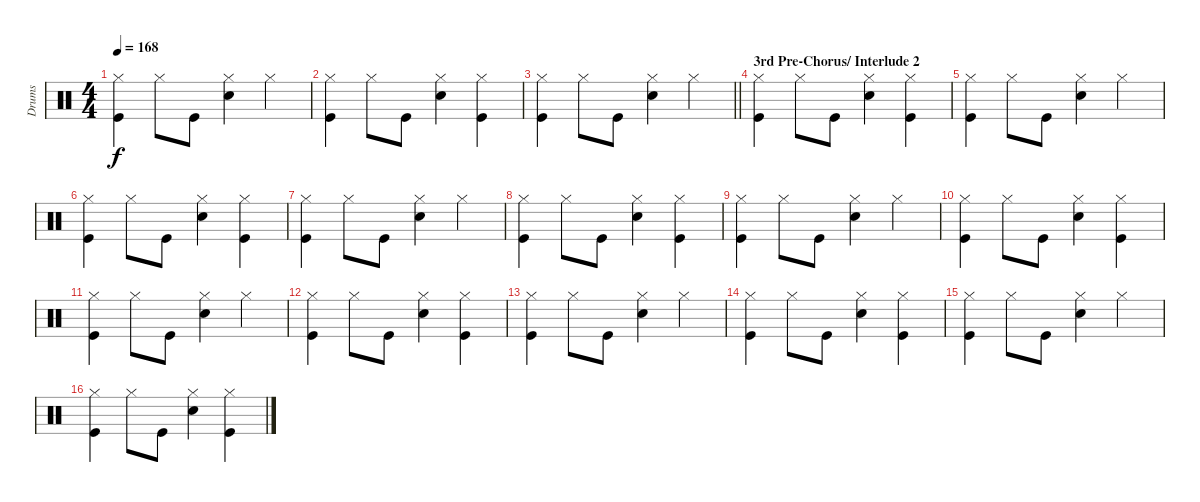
\track ("Drums" "Drums") {instrument percussion}
\staff {score}
\articulation defaults
\ts (4 4)
\tempo 168
\clef neutral
\ks c
("Hi-Hat (closed)" "Kick (hit)").4{dy f} "Hi-Hat (closed)".8 "Kick (hit)".8 ("Hi-Hat (closed)" "Electric Snare (hit)").4 "Hi-Hat (closed)".4 |
("Hi-Hat (closed)" "Kick (hit)").4 "Hi-Hat (closed)".8 "Kick (hit)".8 ("Hi-Hat (closed)" "Electric Snare (hit)").4 ("Hi-Hat (closed)" "Kick (hit)").4 |
\barLineRight lightlight
("Hi-Hat (closed)" "Kick (hit)").4 "Hi-Hat (closed)".8 "Kick (hit)".8 ("Hi-Hat (closed)" "Electric Snare (hit)").4 "Hi-Hat (closed)".4 |
\section ("" "3rd Pre-Chorus/ Interlude 2")
("Hi-Hat (closed)" "Kick (hit)").4 "Hi-Hat (closed)".8 "Kick (hit)".8 ("Hi-Hat (closed)" "Electric Snare (hit)").4 ("Hi-Hat (closed)" "Kick (hit)").4 |
("Hi-Hat (closed)" "Kick (hit)").4 "Hi-Hat (closed)".8 "Kick (hit)".8 ("Hi-Hat (closed)" "Electric Snare (hit)").4 "Hi-Hat (closed)".4 |
("Hi-Hat (closed)" "Kick (hit)").4 "Hi-Hat (closed)".8 "Kick (hit)".8 ("Hi-Hat (closed)" "Electric Snare (hit)").4 ("Hi-Hat (closed)" "Kick (hit)").4 |
("Hi-Hat (closed)" "Kick (hit)").4 "Hi-Hat (closed)".8 "Kick (hit)".8 ("Hi-Hat (closed)" "Electric Snare (hit)").4 "Hi-Hat (closed)".4 |
("Hi-Hat (closed)" "Kick (hit)").4 "Hi-Hat (closed)".8 "Kick (hit)".8 ("Hi-Hat (closed)" "Electric Snare (hit)").4 ("Hi-Hat (closed)" "Kick (hit)").4 |
("Hi-Hat (closed)" "Kick (hit)").4 "Hi-Hat (closed)".8 "Kick (hit)".8 ("Hi-Hat (closed)" "Electric Snare (hit)").4 "Hi-Hat (closed)".4 |
("Hi-Hat (closed)" "Kick (hit)").4 "Hi-Hat (closed)".8 "Kick (hit)".8 ("Hi-Hat (closed)" "Electric Snare (hit)").4 ("Hi-Hat (closed)" "Kick (hit)").4 |
("Hi-Hat (closed)" "Kick (hit)").4 "Hi-Hat (closed)".8 "Kick (hit)".8 ("Hi-Hat (closed)" "Electric Snare (hit)").4 "Hi-Hat (closed)".4 |
("Hi-Hat (closed)" "Kick (hit)").4 "Hi-Hat (closed)".8 "Kick (hit)".8 ("Hi-Hat (closed)" "Electric Snare (hit)").4 ("Hi-Hat (closed)" "Kick (hit)").4 |
("Hi-Hat (closed)" "Kick (hit)").4 "Hi-Hat (closed)".8 "Kick (hit)".8 ("Hi-Hat (closed)" "Electric Snare (hit)").4 "Hi-Hat (closed)".4 |
("Hi-Hat (closed)" "Kick (hit)").4 "Hi-Hat (closed)".8 "Kick (hit)".8 ("Hi-Hat (closed)" "Electric Snare (hit)").4 ("Hi-Hat (closed)" "Kick (hit)").4 |
("Hi-Hat (closed)" "Kick (hit)").4 "Hi-Hat (closed)".8 "Kick (hit)".8 ("Hi-Hat (closed)" "Electric Snare (hit)").4 "Hi-Hat (closed)".4 |
("Hi-Hat (closed)" "Kick (hit)").4 "Hi-Hat (closed)".8 "Kick (hit)".8 ("Hi-Hat (closed)" "Electric Snare (hit)").4 ("Hi-Hat (closed)" "Kick (hit)").4
